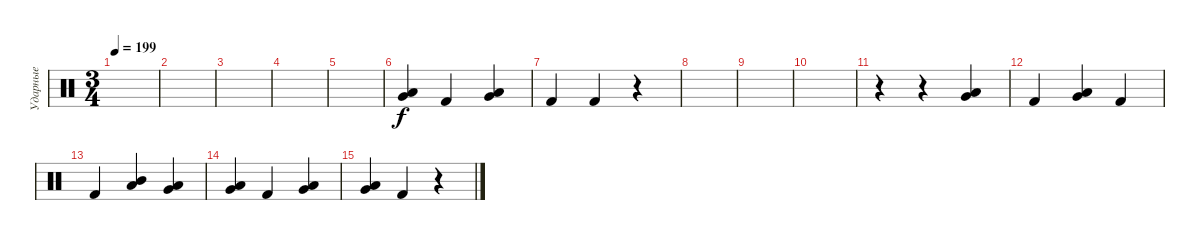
\track ("Ударные" "Ударные") {instrument percussion}
\staff {score}
\articulation defaults
\ts (3 4)
\tempo 199
\clef neutral
\ks c
|
|
|
|
|
("Low Tom (hit)" "Very Low Tom (hit)").4 "Kick (hit) 2".4 ("Low Tom (hit)" "Very Low Tom (hit)").4 |
"Kick (hit) 2".4 "Kick (hit) 2".4 r.4 |
|
|
|
r.4 r.4 ("Low Tom (hit)" "Very Low Tom (hit)").4 |
"Kick (hit) 2".4 ("Low Tom (hit)" "Very Low Tom (hit)").4 "Kick (hit) 2".4 |
"Kick (hit) 2".4 ("Mid Tom (hit)" "Low Tom (hit)").4 ("Low Tom (hit)" "Very Low Tom (hit)").4 |
("Low Tom (hit)" "Very Low Tom (hit)").4 "Kick (hit) 2".4 ("Low Tom (hit)" "Very Low Tom (hit)").4 |
("Low Tom (hit)" "Very Low Tom (hit)").4 "Kick (hit) 2".4 r.4
